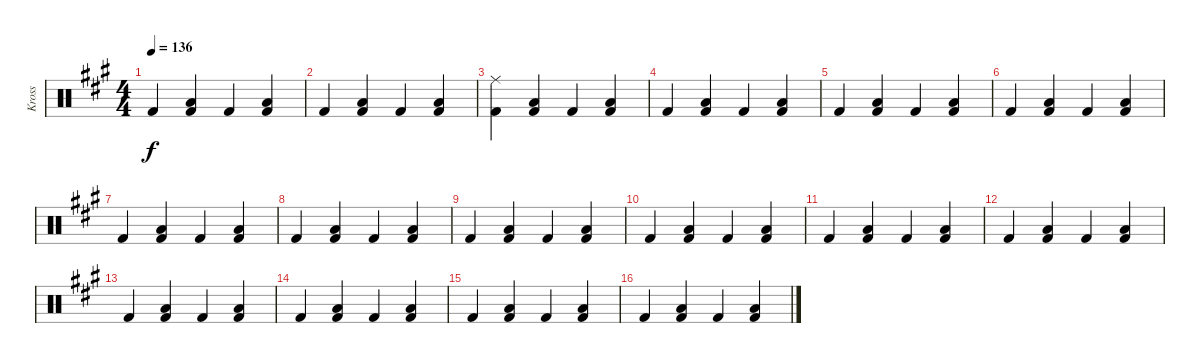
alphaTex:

\track ("Kross" "Kross") {instrument percussion}
\staff {score}
\articulation defaults
\ts (4 4)
\tempo 136
\clef neutral
\ks a "Kick (hit) 2".4{dy f}
("Low Floor Tom (hit)" "Kick (hit) 2").4 "Kick (hit) 2".4 ("Low Floor Tom (hit)" "Kick (hit) 2").4 |
"Kick (hit) 2".4 ("Low Floor Tom (hit)" "Kick (hit) 2").4 "Kick (hit) 2".4 ("Low Floor Tom (hit)" "Kick (hit) 2").4 |
("Ride (middle)" "Kick (hit) 2").4 ("Low Floor Tom (hit)" "Kick (hit) 2").4 "Kick (hit) 2".4 ("Low Floor Tom (hit)" "Kick (hit) 2").4 |
"Kick (hit) 2".4 ("Low Floor Tom (hit)" "Kick (hit) 2").4 "Kick (hit) 2".4 ("Low Floor Tom (hit)" "Kick (hit) 2").4 |
"Kick (hit) 2".4 ("Low Floor Tom (hit)" "Kick (hit) 2").4 "Kick (hit) 2".4 ("Low Floor Tom (hit)" "Kick (hit) 2").4 |
"Kick (hit) 2".4 ("Low Floor Tom (hit)" "Kick (hit) 2").4 "Kick (hit) 2".4 ("Low Floor Tom (hit)" "Kick (hit) 2").4 |
"Kick (hit) 2".4 ("Low Floor Tom (hit)" "Kick (hit) 2").4 "Kick (hit) 2".4 ("Low Floor Tom (hit)" "Kick (hit) 2").4 |
"Kick (hit) 2".4 ("Low Floor Tom (hit)" "Kick (hit) 2").4 "Kick (hit) 2".4 ("Low Floor Tom (hit)" "Kick (hit) 2").4 |
"Kick (hit) 2".4 ("Low Floor Tom (hit)" "Kick (hit) 2").4 "Kick (hit) 2".4 ("Low Floor Tom (hit)" "Kick (hit) 2").4 |
"Kick (hit) 2".4 ("Low Floor Tom (hit)" "Kick (hit) 2").4 "Kick (hit) 2".4 ("Low Floor Tom (hit)" "Kick (hit) 2").4 |
"Kick (hit) 2".4 ("Low Floor Tom (hit)" "Kick (hit) 2").4 "Kick (hit) 2".4 ("Low Floor Tom (hit)" "Kick (hit) 2").4 |
"Kick (hit) 2".4 ("Low Floor Tom (hit)" "Kick (hit) 2").4 "Kick (hit) 2".4 ("Low Floor Tom (hit)" "Kick (hit) 2").4 |
"Kick (hit) 2".4 ("Low Floor Tom (hit)" "Kick (hit) 2").4 "Kick (hit) 2".4 ("Low Floor Tom (hit)" "Kick (hit) 2").4 |
"Kick (hit) 2".4 ("Low Floor Tom (hit)" "Kick (hit) 2").4 "Kick (hit) 2".4 ("Low Floor Tom (hit)" "Kick (hit) 2").4 |
"Kick (hit) 2".4 ("Low Floor Tom (hit)" "Kick (hit) 2").4 "Kick (hit) 2".4 ("Low Floor Tom (hit)" "Kick (hit) 2").4 |
"Kick (hit) 2".4 ("Low Floor Tom (hit)" "Kick (hit) 2").4 "Kick (hit) 2".4 ("Low Floor Tom (hit)" "Kick (hit) 2").4
